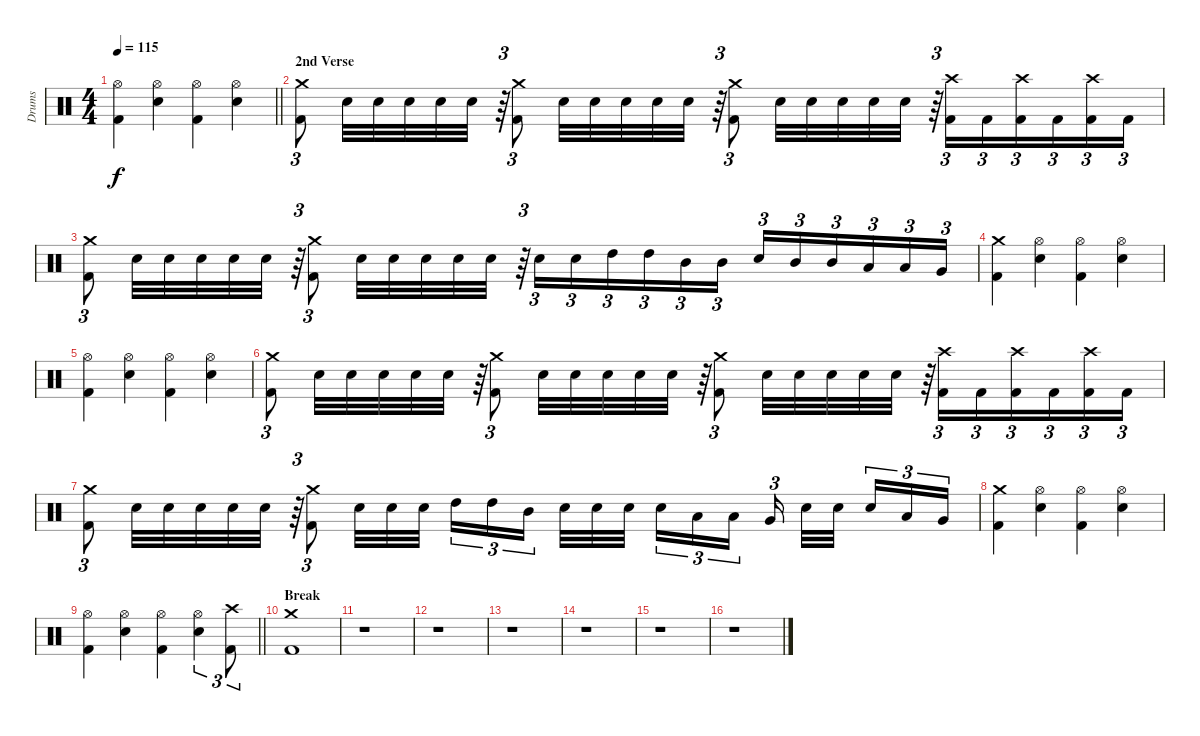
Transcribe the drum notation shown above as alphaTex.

\track ("Drums" "Drums") {instrument percussion}
\staff {score}
\articulation defaults
\ts (4 4)
\tempo 115
\clef neutral
\barLineRight lightlight
\ks c
("Kick (hit) 2" "Hi-Hat (open)").4{dy f} ("Electric Snare (hit)" "Hi-Hat (open)").4 ("Kick (hit) 2" "Hi-Hat (open)").4 ("Electric Snare (hit)" "Hi-Hat (open)").4 |
\section ("" "2nd Verse")
("Kick (hit) 2" "Crash medium (hit)").8{tu (3 2)} "Electric Snare (hit)".32 "Electric Snare (hit)".32 "Electric Snare (hit)".32 "Electric Snare (hit)".32 "Electric Snare (hit)".32 r.64{tu (3 2)} ("Kick (hit) 2" "Crash medium (hit)").8{tu (3 2)} "Electric Snare (hit)".32 "Electric Snare (hit)".32 "Electric Snare (hit)".32 "Electric Snare (hit)".32 "Electric Snare (hit)".32 r.64{tu (3 2)} ("Kick (hit) 2" "Crash medium (hit)").8{tu (3 2)} "Electric Snare (hit)".32 "Electric Snare (hit)".32 "Electric Snare (hit)".32 "Electric Snare (hit)".32 "Electric Snare (hit)".32 r.64{tu (3 2)} ("Kick (hit) 2" "Crash high (hit)").16{tu (3 2)} "Kick (hit) 2".16{tu (3 2)} ("Kick (hit) 2" "Crash high (hit)").16{tu (3 2)} "Kick (hit) 2".16{tu (3 2)} ("Kick (hit) 2" "Crash high (hit)").16{tu (3 2)} "Kick (hit) 2".16{tu (3 2)} |
("Kick (hit) 2" "Crash medium (hit)").8{tu (3 2)} "Electric Snare (hit)".32 "Electric Snare (hit)".32 "Electric Snare (hit)".32 "Electric Snare (hit)".32 "Electric Snare (hit)".32 r.64{tu (3 2)} ("Kick (hit) 2" "Crash medium (hit)").8{tu (3 2)} "Electric Snare (hit)".32 "Electric Snare (hit)".32 "Electric Snare (hit)".32 "Electric Snare (hit)".32 "Electric Snare (hit)".32 r.64{tu (3 2)} "Electric Snare (hit)".16{tu (3 2)} "Electric Snare (hit)".16{tu (3 2)} "High Tom (hit)".16{tu (3 2)} "High Tom (hit)".16{tu (3 2)} "Mid Tom (hit)".16{tu (3 2)} "Mid Tom (hit)".16{tu (3 2)} "Electric Snare (hit)".16{tu (3 2)} "Mid Tom (hit)".16{tu (3 2)} "Mid Tom (hit)".16{tu (3 2)} "Low Tom (hit)".16{tu (3 2)} "Low Tom (hit)".16{tu (3 2)} "Very Low Tom (hit)".16{tu (3 2)} |
("Kick (hit) 2" "Crash medium (hit)").4 ("Electric Snare (hit)" "Hi-Hat (open)").4 ("Kick (hit) 2" "Hi-Hat (open)").4 ("Electric Snare (hit)" "Hi-Hat (open)").4 |
("Kick (hit) 2" "Hi-Hat (open)").4 ("Electric Snare (hit)" "Hi-Hat (open)").4 ("Kick (hit) 2" "Hi-Hat (open)").4 ("Electric Snare (hit)" "Hi-Hat (open)").4 |
("Kick (hit) 2" "Crash medium (hit)").8{tu (3 2)} "Electric Snare (hit)".32 "Electric Snare (hit)".32 "Electric Snare (hit)".32 "Electric Snare (hit)".32 "Electric Snare (hit)".32 r.64{tu (3 2)} ("Kick (hit) 2" "Crash medium (hit)").8{tu (3 2)} "Electric Snare (hit)".32 "Electric Snare (hit)".32 "Electric Snare (hit)".32 "Electric Snare (hit)".32 "Electric Snare (hit)".32 r.64{tu (3 2)} ("Kick (hit) 2" "Crash medium (hit)").8{tu (3 2)} "Electric Snare (hit)".32 "Electric Snare (hit)".32 "Electric Snare (hit)".32 "Electric Snare (hit)".32 "Electric Snare (hit)".32 r.64{tu (3 2)} ("Kick (hit) 2" "Crash high (hit)").16{tu (3 2)} "Kick (hit) 2".16{tu (3 2)} ("Kick (hit) 2" "Crash high (hit)").16{tu (3 2)} "Kick (hit) 2".16{tu (3 2)} ("Kick (hit) 2" "Crash high (hit)").16{tu (3 2)} "Kick (hit) 2".16{tu (3 2)} |
("Kick (hit) 2" "Crash medium (hit)").8{tu (3 2)} "Electric Snare (hit)".32 "Electric Snare (hit)".32 "Electric Snare (hit)".32 "Electric Snare (hit)".32 "Electric Snare (hit)".32 r.64{tu (3 2)} ("Kick (hit) 2" "Crash medium (hit)").8{tu (3 2)} "Electric Snare (hit)".32 "Electric Snare (hit)".32 "Electric Snare (hit)".32 "High Tom (hit)".16{tu (3 2)} "High Tom (hit)".16{tu (3 2)} "Mid Tom (hit)".16{tu (3 2)} "Electric Snare (hit)".32 "Electric Snare (hit)".32 "Electric Snare (hit)".32 "Electric Snare (hit)".16{tu (3 2)} "Low Tom (hit)".16{tu (3 2)} "Low Tom (hit)".16{tu (3 2)} "Very Low Tom (hit)".16{tu (3 2)} "Electric Snare (hit)".32 "Electric Snare (hit)".32 "Electric Snare (hit)".16{tu (3 2)} "Low Tom (hit)".16{tu (3 2)} "Very Low Tom (hit)".16{tu (3 2)} |
("Kick (hit) 2" "Crash medium (hit)").4 ("Electric Snare (hit)" "Hi-Hat (open)").4 ("Kick (hit) 2" "Hi-Hat (open)").4 ("Electric Snare (hit)" "Hi-Hat (open)").4 |
\barLineRight lightlight
("Kick (hit) 2" "Hi-Hat (open)").4 ("Electric Snare (hit)" "Hi-Hat (open)").4 ("Kick (hit) 2" "Hi-Hat (open)").4 ("Electric Snare (hit)" "Hi-Hat (open)").4{tu (3 2)} ("Kick (hit) 2" "Crash high (hit)").8{tu (3 2)} |
\section ("" "Break")
("Kick (hit) 2" "Crash medium (hit)").1 |
r.1 |
r.1 |
r.1 |
r.1 |
r.1 |
r.1
